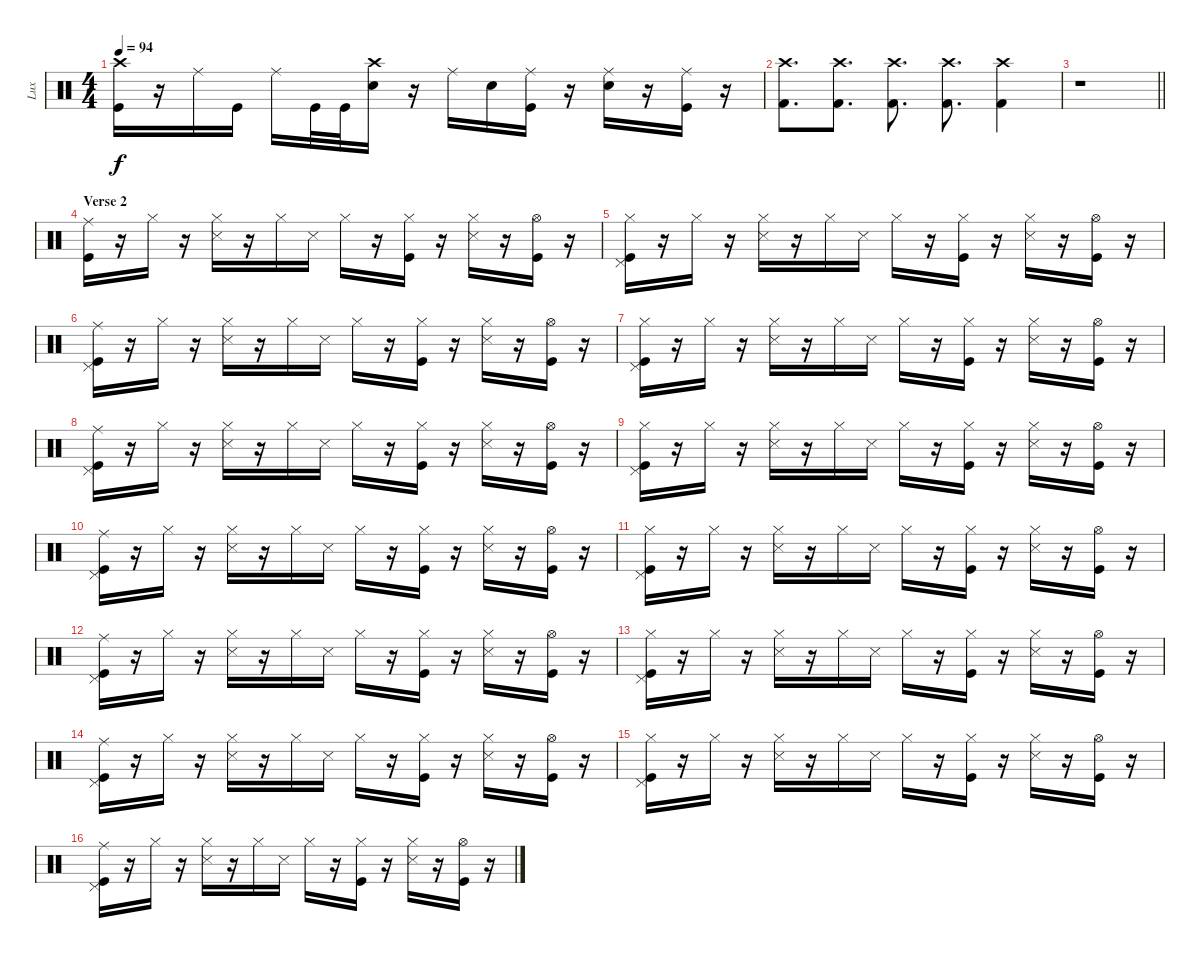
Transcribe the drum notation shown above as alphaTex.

\track ("Lux" "Lux") {instrument percussion}
\staff {score}
\articulation defaults
\ts (4 4)
\tempo 94
\clef neutral
\ks c
("Crash high (hit)" "Kick (hit)").16{dy f} r.16 "Ride (middle)".16 "Kick (hit)".16 "Ride (middle)".16 "Kick (hit)".32 "Kick (hit)".32 ("Crash high (hit)" "Snare (hit) 2").16 r.16 "Ride (middle)".16 "Snare (hit) 2".16 ("Ride (middle)" "Kick (hit)").16 r.16 ("Ride (middle)" "Snare (hit) 2").16 r.16 ("Ride (middle)" "Kick (hit)").16 r.16 |
("Crash high (hit)" "Kick (hit) 2").8{d} ("Crash high (hit)" "Kick (hit) 2").8{d} ("Crash high (hit)" "Kick (hit) 2").8{d} ("Crash high (hit)" "Kick (hit) 2").8{d} ("Crash high (hit)" "Kick (hit) 2").4 |
\barLineRight lightlight
r.1 |
\section ("" "Verse 2")
("Ride (middle)" "Kick (hit)").16 r.16 "Hi-Hat (closed)".16 r.16 ("Hi-Hat (closed)" "Snare (side stick) 3").16 r.16 "Hi-Hat (closed)".16 "Snare (side stick) 3".16 "Hi-Hat (closed)".16 r.16 ("Hi-Hat (closed)" "Kick (hit)").16 r.16 ("Hi-Hat (closed)" "Snare (side stick) 3").16 r.16 ("Hi-Hat (open)" "Kick (hit)").16 r.16 |
("Hi-Hat (closed)" "Pedal Hi-Hat (hit)" "Kick (hit)").16 r.16 "Hi-Hat (closed)".16 r.16 ("Hi-Hat (closed)" "Snare (side stick) 3").16 r.16 "Hi-Hat (closed)".16 "Snare (side stick) 3".16 "Hi-Hat (closed)".16 r.16 ("Hi-Hat (closed)" "Kick (hit)").16 r.16 ("Hi-Hat (closed)" "Snare (side stick) 3").16 r.16 ("Hi-Hat (open)" "Kick (hit)").16 r.16 |
("Ride (middle)" "Pedal Hi-Hat (hit)" "Kick (hit)").16 r.16 "Hi-Hat (closed)".16 r.16 ("Hi-Hat (closed)" "Snare (side stick) 3").16 r.16 "Hi-Hat (closed)".16 "Snare (side stick) 3".16 "Hi-Hat (closed)".16 r.16 ("Hi-Hat (closed)" "Kick (hit)").16 r.16 ("Hi-Hat (closed)" "Snare (side stick) 3").16 r.16 ("Hi-Hat (open)" "Kick (hit)").16 r.16 |
("Hi-Hat (closed)" "Pedal Hi-Hat (hit)" "Kick (hit)").16 r.16 "Hi-Hat (closed)".16 r.16 ("Hi-Hat (closed)" "Snare (side stick) 3").16 r.16 "Hi-Hat (closed)".16 "Snare (side stick) 3".16 "Hi-Hat (closed)".16 r.16 ("Hi-Hat (closed)" "Kick (hit)").16 r.16 ("Hi-Hat (closed)" "Snare (side stick) 3").16 r.16 ("Hi-Hat (open)" "Kick (hit)").16 r.16 |
("Ride (middle)" "Pedal Hi-Hat (hit)" "Kick (hit)").16 r.16 "Hi-Hat (closed)".16 r.16 ("Hi-Hat (closed)" "Snare (side stick) 3").16 r.16 "Hi-Hat (closed)".16 "Snare (side stick) 3".16 "Hi-Hat (closed)".16 r.16 ("Hi-Hat (closed)" "Kick (hit)").16 r.16 ("Hi-Hat (closed)" "Snare (side stick) 3").16 r.16 ("Hi-Hat (open)" "Kick (hit)").16 r.16 |
("Hi-Hat (closed)" "Pedal Hi-Hat (hit)" "Kick (hit)").16 r.16 "Hi-Hat (closed)".16 r.16 ("Hi-Hat (closed)" "Snare (side stick) 3").16 r.16 "Hi-Hat (closed)".16 "Snare (side stick) 3".16 "Hi-Hat (closed)".16 r.16 ("Hi-Hat (closed)" "Kick (hit)").16 r.16 ("Hi-Hat (closed)" "Snare (side stick) 3").16 r.16 ("Hi-Hat (open)" "Kick (hit)").16 r.16 |
("Ride (middle)" "Pedal Hi-Hat (hit)" "Kick (hit)").16 r.16 "Hi-Hat (closed)".16 r.16 ("Hi-Hat (closed)" "Snare (side stick) 3").16 r.16 "Hi-Hat (closed)".16 "Snare (side stick) 3".16 "Hi-Hat (closed)".16 r.16 ("Hi-Hat (closed)" "Kick (hit)").16 r.16 ("Hi-Hat (closed)" "Snare (side stick) 3").16 r.16 ("Hi-Hat (open)" "Kick (hit)").16 r.16 |
("Hi-Hat (closed)" "Pedal Hi-Hat (hit)" "Kick (hit)").16 r.16 "Hi-Hat (closed)".16 r.16 ("Hi-Hat (closed)" "Snare (side stick) 3").16 r.16 "Hi-Hat (closed)".16 "Snare (side stick) 3".16 "Hi-Hat (closed)".16 r.16 ("Hi-Hat (closed)" "Kick (hit)").16 r.16 ("Hi-Hat (closed)" "Snare (side stick) 3").16 r.16 ("Hi-Hat (open)" "Kick (hit)").16 r.16 |
("Ride (middle)" "Pedal Hi-Hat (hit)" "Kick (hit)").16 r.16 "Hi-Hat (closed)".16 r.16 ("Hi-Hat (closed)" "Snare (side stick) 3").16 r.16 "Hi-Hat (closed)".16 "Snare (side stick) 3".16 "Hi-Hat (closed)".16 r.16 ("Hi-Hat (closed)" "Kick (hit)").16 r.16 ("Hi-Hat (closed)" "Snare (side stick) 3").16 r.16 ("Hi-Hat (open)" "Kick (hit)").16 r.16 |
("Hi-Hat (closed)" "Pedal Hi-Hat (hit)" "Kick (hit)").16 r.16 "Hi-Hat (closed)".16 r.16 ("Hi-Hat (closed)" "Snare (side stick) 3").16 r.16 "Hi-Hat (closed)".16 "Snare (side stick) 3".16 "Hi-Hat (closed)".16 r.16 ("Hi-Hat (closed)" "Kick (hit)").16 r.16 ("Hi-Hat (closed)" "Snare (side stick) 3").16 r.16 ("Hi-Hat (open)" "Kick (hit)").16 r.16 |
("Ride (middle)" "Pedal Hi-Hat (hit)" "Kick (hit)").16 r.16 "Hi-Hat (closed)".16 r.16 ("Hi-Hat (closed)" "Snare (side stick) 3").16 r.16 "Hi-Hat (closed)".16 "Snare (side stick) 3".16 "Hi-Hat (closed)".16 r.16 ("Hi-Hat (closed)" "Kick (hit)").16 r.16 ("Hi-Hat (closed)" "Snare (side stick) 3").16 r.16 ("Hi-Hat (open)" "Kick (hit)").16 r.16 |
("Hi-Hat (closed)" "Pedal Hi-Hat (hit)" "Kick (hit)").16 r.16 "Hi-Hat (closed)".16 r.16 ("Hi-Hat (closed)" "Snare (side stick) 3").16 r.16 "Hi-Hat (closed)".16 "Snare (side stick) 3".16 "Hi-Hat (closed)".16 r.16 ("Hi-Hat (closed)" "Kick (hit)").16 r.16 ("Hi-Hat (closed)" "Snare (side stick) 3").16 r.16 ("Hi-Hat (open)" "Kick (hit)").16 r.16 |
("Ride (middle)" "Pedal Hi-Hat (hit)" "Kick (hit)").16 r.16 "Hi-Hat (closed)".16 r.16 ("Hi-Hat (closed)" "Snare (side stick) 3").16 r.16 "Hi-Hat (closed)".16 "Snare (side stick) 3".16 "Hi-Hat (closed)".16 r.16 ("Hi-Hat (closed)" "Kick (hit)").16 r.16 ("Hi-Hat (closed)" "Snare (side stick) 3").16 r.16 ("Hi-Hat (open)" "Kick (hit)").16 r.16
